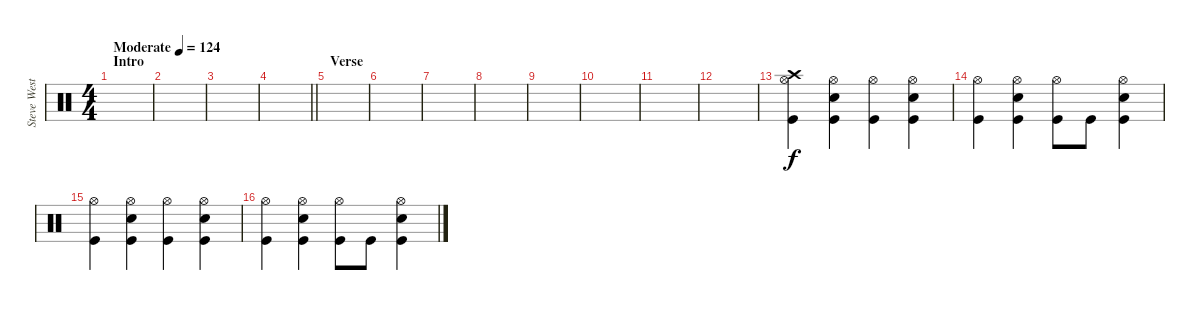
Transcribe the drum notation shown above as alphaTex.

\track ("Steve West" "Steve West") {instrument percussion}
\staff {score}
\articulation defaults
\ts (4 4)
\section ("" "Intro")
\tempo (124 "Moderate")
\clef neutral
\ks c
|
|
|
\barLineRight lightlight
|
\section ("" "Verse")
|
|
|
|
|
|
|
|
("Crash high (hit)" "Hi-Hat (open)" "Kick (hit)").4 ("Hi-Hat (open)" "Snare (hit) 2" "Kick (hit)").4 ("Hi-Hat (open)" "Kick (hit)").4 ("Hi-Hat (open)" "Snare (hit) 2" "Kick (hit)").4 |
("Hi-Hat (open)" "Kick (hit)").4 ("Hi-Hat (open)" "Snare (hit) 2" "Kick (hit)").4 ("Hi-Hat (open)" "Kick (hit)").8 "Kick (hit)".8 ("Hi-Hat (open)" "Snare (hit) 2" "Kick (hit)").4 |
("Hi-Hat (open)" "Kick (hit)").4 ("Hi-Hat (open)" "Snare (hit) 2" "Kick (hit)").4 ("Hi-Hat (open)" "Kick (hit)").4 ("Hi-Hat (open)" "Snare (hit) 2" "Kick (hit)").4 |
("Hi-Hat (open)" "Kick (hit)").4 ("Hi-Hat (open)" "Snare (hit) 2" "Kick (hit)").4 ("Hi-Hat (open)" "Kick (hit)").8 "Kick (hit)".8 ("Hi-Hat (open)" "Snare (hit) 2" "Kick (hit)").4
